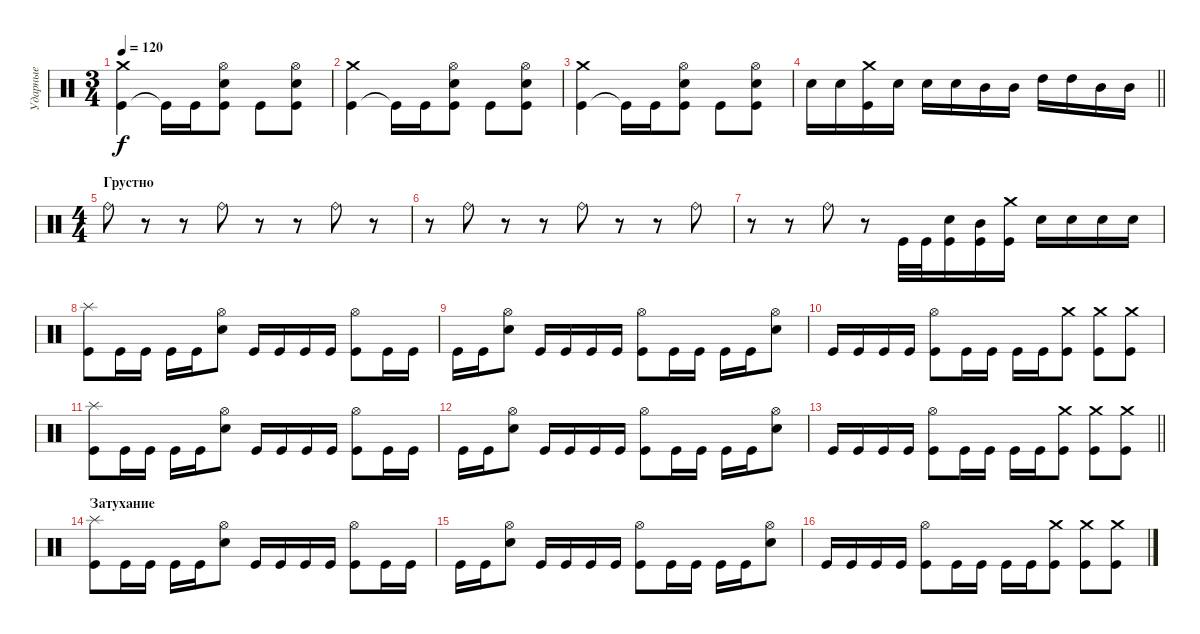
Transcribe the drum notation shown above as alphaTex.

\track ("Ударные" "Ударные") {instrument percussion}
\staff {score}
\articulation defaults
\ts (3 4)
\tempo 120
\clef neutral
\ks c
("Kick (hit)" "Crash medium (hit)").4{dy f} "Kick (hit)"{t}.16 "Kick (hit)".16 ("Kick (hit)" "Snare (hit) 2" "Hi-Hat (open)").8 "Kick (hit)".8 ("Kick (hit)" "Snare (hit) 2" "Hi-Hat (open)").8 |
("Kick (hit)" "Crash medium (hit)").4 "Kick (hit)"{t}.16 "Kick (hit)".16 ("Kick (hit)" "Snare (hit) 2" "Hi-Hat (open)").8 "Kick (hit)".8 ("Kick (hit)" "Snare (hit) 2" "Hi-Hat (open)").8 |
("Kick (hit)" "Crash medium (hit)").4 "Kick (hit)"{t}.16 "Kick (hit)".16 ("Kick (hit)" "Snare (hit) 2" "Hi-Hat (open)").8 "Kick (hit)".8 ("Kick (hit)" "Snare (hit) 2" "Hi-Hat (open)").8 |
\barLineRight lightlight "Snare (hit) 2".16 "Snare (hit) 2".16
("Kick (hit)" "Crash medium (hit)").16 "Snare (hit) 2".16 "Snare (hit) 2".16 "Snare (hit) 2".16 "Mid Tom (hit)".16 "Mid Tom (hit)".16 "High Tom (hit)".16 "High Tom (hit)".16 "Mid Tom (hit)".16 "Mid Tom (hit)".16 |
\ts (4 4)
\section ("" "Грустно")
"Ride (bell)".8 r.8 r.8 "Ride (bell)".8 r.8 r.8 "Ride (bell)".8 r.8 |
r.8 "Ride (bell)".8 r.8 r.8 "Ride (bell)".8 r.8 r.8 "Ride (bell)".8 |
r.8 r.8 "Ride (bell)".8 r.8 "Kick (hit)".32 "Kick (hit)".32 ("Snare (hit) 2" "Kick (hit)").16 ("Mid Tom (hit)" "Kick (hit)").16 ("Kick (hit)" "Crash medium (hit)").16 "Snare (hit) 2".16 "Snare (hit) 2".16 "Snare (hit) 2".16 "Snare (hit) 2".16 |
("Kick (hit)" "Splash (hit)").8 "Kick (hit)".16 "Kick (hit)".16 "Kick (hit)".16 "Kick (hit)".16 ("Snare (hit) 2" "Hi-Hat (open)").8 "Kick (hit)".16 "Kick (hit)".16 "Kick (hit)".16 "Kick (hit)".16 ("Kick (hit)" "Hi-Hat (open)").8 "Kick (hit)".16 "Kick (hit)".16 |
"Kick (hit)".16 "Kick (hit)".16 ("Snare (hit) 2" "Hi-Hat (open)").8 "Kick (hit)".16 "Kick (hit)".16 "Kick (hit)".16 "Kick (hit)".16 ("Kick (hit)" "Hi-Hat (open)").8 "Kick (hit)".16 "Kick (hit)".16 "Kick (hit)".16 "Kick (hit)".16 ("Snare (hit) 2" "Hi-Hat (open)").8 |
"Kick (hit)".16 "Kick (hit)".16 "Kick (hit)".16 "Kick (hit)".16 ("Kick (hit)" "Hi-Hat (open)").8 "Kick (hit)".16 "Kick (hit)".16 "Kick (hit)".16 "Kick (hit)".16 ("Kick (hit)" "Crash medium (hit)").8 ("Kick (hit)" "Crash medium (hit)").8 ("Kick (hit)" "Crash medium (hit)").8 |
("Kick (hit)" "Splash (hit)").8 "Kick (hit)".16 "Kick (hit)".16 "Kick (hit)".16 "Kick (hit)".16 ("Snare (hit) 2" "Hi-Hat (open)").8 "Kick (hit)".16 "Kick (hit)".16 "Kick (hit)".16 "Kick (hit)".16 ("Kick (hit)" "Hi-Hat (open)").8 "Kick (hit)".16 "Kick (hit)".16 |
"Kick (hit)".16 "Kick (hit)".16 ("Snare (hit) 2" "Hi-Hat (open)").8 "Kick (hit)".16 "Kick (hit)".16 "Kick (hit)".16 "Kick (hit)".16 ("Kick (hit)" "Hi-Hat (open)").8 "Kick (hit)".16 "Kick (hit)".16 "Kick (hit)".16 "Kick (hit)".16 ("Snare (hit) 2" "Hi-Hat (open)").8 |
\barLineRight lightlight "Kick (hit)".16 "Kick (hit)".16 "Kick (hit)".16 "Kick (hit)".16
("Kick (hit)" "Hi-Hat (open)").8 "Kick (hit)".16 "Kick (hit)".16 "Kick (hit)".16 "Kick (hit)".16 ("Kick (hit)" "Crash medium (hit)").8 ("Kick (hit)" "Crash medium (hit)").8 ("Kick (hit)" "Crash medium (hit)").8 |
\section ("" "Затухание")
("Kick (hit)" "Splash (hit)").8 "Kick (hit)".16 "Kick (hit)".16 "Kick (hit)".16 "Kick (hit)".16 ("Snare (hit) 2" "Hi-Hat (open)").8 "Kick (hit)".16 "Kick (hit)".16 "Kick (hit)".16 "Kick (hit)".16 ("Kick (hit)" "Hi-Hat (open)").8 "Kick (hit)".16 "Kick (hit)".16 |
"Kick (hit)".16 "Kick (hit)".16 ("Snare (hit) 2" "Hi-Hat (open)").8 "Kick (hit)".16 "Kick (hit)".16 "Kick (hit)".16 "Kick (hit)".16 ("Kick (hit)" "Hi-Hat (open)").8 "Kick (hit)".16 "Kick (hit)".16 "Kick (hit)".16 "Kick (hit)".16 ("Snare (hit) 2" "Hi-Hat (open)").8 |
"Kick (hit)".16 "Kick (hit)".16 "Kick (hit)".16 "Kick (hit)".16 ("Kick (hit)" "Hi-Hat (open)").8 "Kick (hit)".16 "Kick (hit)".16 "Kick (hit)".16 "Kick (hit)".16 ("Kick (hit)" "Crash medium (hit)").8 ("Kick (hit)" "Crash medium (hit)").8 ("Kick (hit)" "Crash medium (hit)").8
